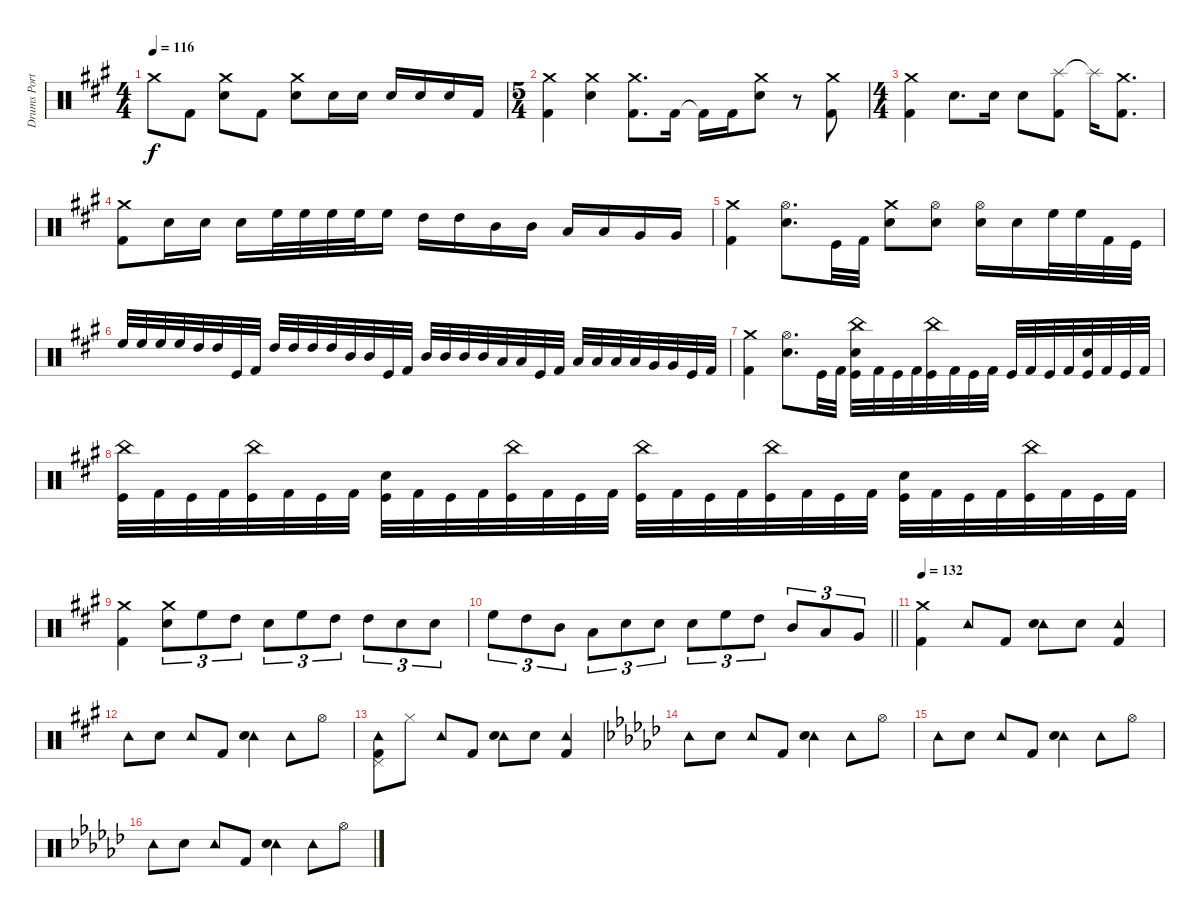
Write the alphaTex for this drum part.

\track ("Drums Portnoy" "Drums Port") {instrument percussion}
\staff {score}
\articulation defaults
\ts (4 4)
\tempo 116
\clef neutral
\ks a "Crash medium (hit)".8{dy f} "Kick (hit) 2".8
("Crash medium (hit)" "Snare (hit) 2").8 "Kick (hit) 2".8 ("Crash medium (hit)" "Snare (hit) 2").8 "Snare (hit) 2".16 "Snare (hit) 2".16 "Snare (hit) 2".16 "Snare (hit) 2".16 "Snare (hit) 2".16 "Kick (hit) 2".16 |
\ts (5 4)
("Crash medium (hit)" "Kick (hit) 2").4 ("Crash medium (hit)" "Snare (hit) 2").4 ("Crash medium (hit)" "Kick (hit) 2").8{d} "Kick (hit) 2".16 "Kick (hit) 2"{t}.16 "Kick (hit) 2".16 ("Crash medium (hit)" "Snare (hit) 2").8 r.8 ("Crash medium (hit)" "Kick (hit) 2").8 |
\ts (4 4)
("Crash medium (hit)" "Kick (hit) 2").4 "Snare (hit) 2".8{d} "Snare (hit) 2".16 "Snare (hit) 2".8 ("Splash (hit)" "Kick (hit) 2").8 "Splash (hit)"{t}.16 ("Crash medium (hit)" "Kick (hit) 2").8{d} |
("Crash medium (hit)" "Kick (hit) 2").8 "Snare (hit) 2".16 "Snare (hit) 2".16 "Snare (hit) 2".16 "High Floor Tom (hit)".32 "High Floor Tom (hit)".32 "High Floor Tom (hit)".32 "High Floor Tom (hit)".32 "High Floor Tom (hit)".16 "High Tom (hit)".16 "High Tom (hit)".16 "Mid Tom (hit)".16 "Mid Tom (hit)".16 "Low Tom (hit)".16 "Low Tom (hit)".16 "Very Low Tom (hit)".16 "Very Low Tom (hit)".16 |
("Crash medium (hit)" "Kick (hit) 2").4 ("Hi-Hat (open)" "Snare (hit) 2").8{d} "Kick (hit)".32 "Kick (hit) 2".32 ("Crash medium (hit)" "Snare (hit) 2").8 ("Hi-Hat (open)" "Snare (hit) 2").8 ("Hi-Hat (open)" "Snare (hit) 2").16 "Snare (hit) 2".16 "High Floor Tom (hit)".32 "High Floor Tom (hit)".32 "Kick (hit) 2".32 "Kick (hit)".32 |
"High Floor Tom (hit)".32 "High Floor Tom (hit)".32 "High Floor Tom (hit)".32 "High Floor Tom (hit)".32 "High Tom (hit)".32 "High Tom (hit)".32 "Kick (hit)".32 "Kick (hit) 2".32 "High Tom (hit)".32 "High Tom (hit)".32 "High Tom (hit)".32 "High Tom (hit)".32 "Mid Tom (hit)".32 "Mid Tom (hit)".32 "Kick (hit)".32 "Kick (hit) 2".32 "Mid Tom (hit)".32 "Mid Tom (hit)".32 "Mid Tom (hit)".32 "Mid Tom (hit)".32 "Low Tom (hit)".32 "Low Tom (hit)".32 "Kick (hit)".32 "Kick (hit) 2".32 "Low Tom (hit)".32 "Low Tom (hit)".32 "Low Tom (hit)".32 "Low Tom (hit)".32 "Very Low Tom (hit)".32 "Very Low Tom (hit)".32 "Kick (hit)".32 "Kick (hit) 2".32 |
("Crash medium (hit)" "Kick (hit) 2").4 ("Hi-Hat (open)" "Snare (hit) 2").8{d} "Kick (hit)".32 "Kick (hit) 2".32 ("China (hit)" "Snare (hit) 2" "Kick (hit)").32 "Kick (hit) 2".32 "Kick (hit)".32 "Kick (hit) 2".32 ("China (hit)" "Kick (hit)").32 "Kick (hit) 2".32 "Kick (hit)".32 "Kick (hit) 2".32 "Kick (hit)".32 "Kick (hit) 2".32 "Kick (hit)".32 "Kick (hit) 2".32 ("Snare (hit) 2" "Kick (hit)").32 "Kick (hit) 2".32 "Kick (hit)".32 "Kick (hit) 2".32 |
("China (hit)" "Kick (hit)").32 "Kick (hit) 2".32 "Kick (hit)".32 "Kick (hit) 2".32 ("China (hit)" "Kick (hit)").32 "Kick (hit) 2".32 "Kick (hit)".32 "Kick (hit) 2".32 ("Snare (hit) 2" "Kick (hit)").32 "Kick (hit) 2".32 "Kick (hit)".32 "Kick (hit) 2".32 ("China (hit)" "Kick (hit)").32 "Kick (hit) 2".32 "Kick (hit)".32 "Kick (hit) 2".32 ("China (hit)" "Kick (hit)").32 "Kick (hit) 2".32 "Kick (hit)".32 "Kick (hit) 2".32 ("China (hit)" "Kick (hit)").32 "Kick (hit) 2".32 "Kick (hit)".32 "Kick (hit) 2".32 ("Snare (hit) 2" "Kick (hit)").32 "Kick (hit) 2".32 "Kick (hit)".32 "Kick (hit) 2".32 ("China (hit)" "Kick (hit)").32 "Kick (hit) 2".32 "Kick (hit)".32 "Kick (hit) 2".32 |
("Crash medium (hit)" "Kick (hit) 2").4 ("Crash medium (hit)" "Snare (hit) 2").8{tu (3 2)} "High Floor Tom (hit)".8{tu (3 2)} "High Tom (hit)".8{tu (3 2)} "Snare (hit) 2".8{tu (3 2)} "High Floor Tom (hit)".8{tu (3 2)} "High Tom (hit)".8{tu (3 2)} "High Tom (hit)".8{tu (3 2)} "Snare (hit) 2".8{tu (3 2)} "Snare (hit) 2".8{tu (3 2)} |
\barLineRight lightlight "High Floor Tom (hit)".8{tu (3 2)} "High Tom (hit)".8{tu (3 2)} "Mid Tom (hit)".8{tu (3 2)} "Low Tom (hit)".8{tu (3 2)} "Snare (hit) 2".8{tu (3 2)} "Snare (hit) 2".8{tu (3 2)} "Snare (hit) 2".8{tu (3 2)} "High Floor Tom (hit)".8{tu (3 2)} "High Tom (hit)".8{tu (3 2)} "Mid Tom (hit)".8{tu (3 2)} "Low Tom (hit)".8{tu (3 2)} "Very Low Tom (hit)".8{tu (3 2)}
|
\tempo 132
("Crash medium (hit)" "Kick (hit) 2").4 "Tambourine (hit)".8 "Kick (hit) 2".8 ("Tambourine (hit)" "Snare (hit) 2").8 "Snare (hit) 2".8 ("Tambourine (hit)" "Kick (hit) 2").4 |
"Tambourine (hit)".8 "Snare (hit) 2".8 "Tambourine (hit)".8 "Kick (hit) 2".8 ("Tambourine (hit)" "Snare (hit) 2").4 "Tambourine (hit)".8 "Hi-Hat (open)".8 |
("Tambourine (hit)" "Pedal Hi-Hat (hit)" "Kick (hit) 2").8 "Hi-Hat (closed)".8 "Tambourine (hit)".8 "Kick (hit) 2".8 ("Tambourine (hit)" "Snare (hit) 2").8 "Snare (hit) 2".8 ("Tambourine (hit)" "Kick (hit) 2").4 |
\ks gb "Tambourine (hit)".8 "Snare (hit) 2".8 "Tambourine (hit)".8 "Kick (hit) 2".8
("Tambourine (hit)" "Snare (hit) 2").4 "Tambourine (hit)".8 "Hi-Hat (open)".8 |
"Tambourine (hit)".8 "Snare (hit) 2".8 "Tambourine (hit)".8 "Kick (hit) 2".8 ("Tambourine (hit)" "Snare (hit) 2").4 "Tambourine (hit)".8 "Hi-Hat (open)".8 |
"Tambourine (hit)".8 "Snare (hit) 2".8 "Tambourine (hit)".8 "Kick (hit) 2".8 ("Tambourine (hit)" "Snare (hit) 2").4 "Tambourine (hit)".8 "Hi-Hat (open)".8
